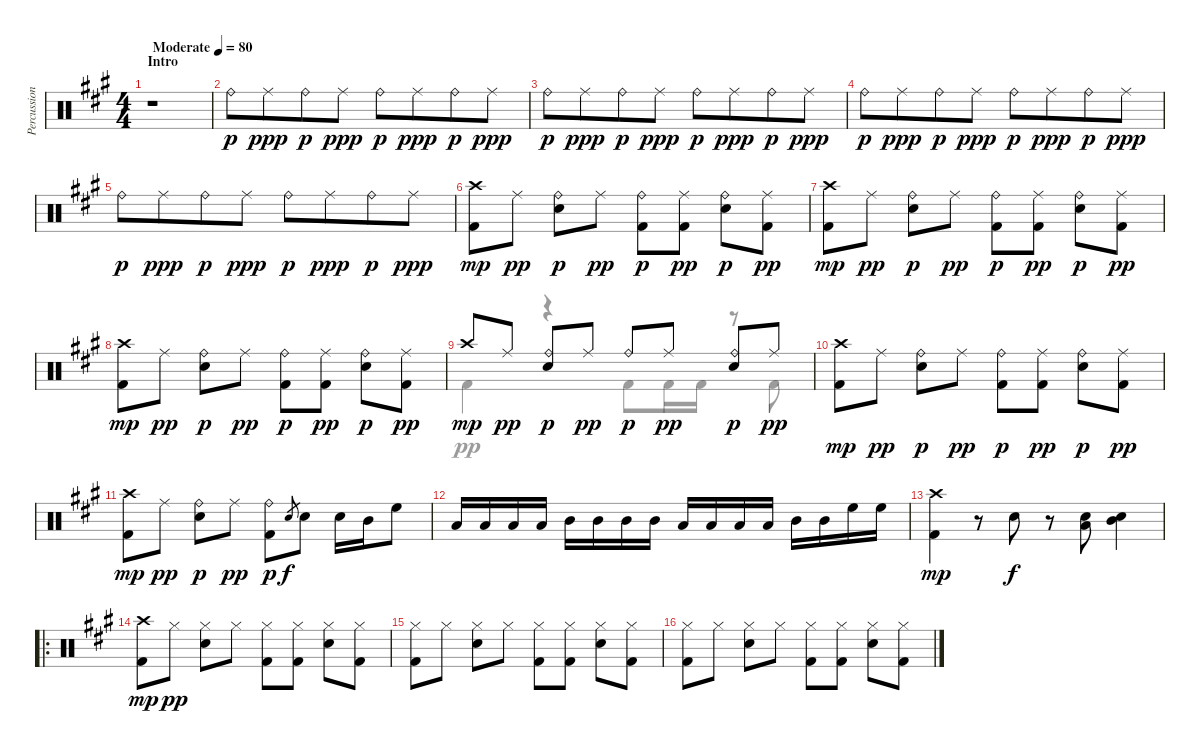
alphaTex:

\track ("Percussion" "Percussion") {instrument percussion}
\staff {score}
\articulation defaults
\voice
\ts (4 4)
\section ("" "Intro")
\tempo (80 "Moderate")
\clef neutral
\ks a
r.1{dy p} |
"Ride (bell)".8 "Ride (middle)".8{dy ppp beam merge} "Ride (bell)".8{dy p} "Ride (middle)".8{dy ppp} "Ride (bell)".8{dy p} "Ride (middle)".8{dy ppp beam merge} "Ride (bell)".8{dy p} "Ride (middle)".8{dy ppp} |
"Ride (bell)".8{dy p} "Ride (middle)".8{dy ppp beam merge} "Ride (bell)".8{dy p} "Ride (middle)".8{dy ppp} "Ride (bell)".8{dy p} "Ride (middle)".8{dy ppp beam merge} "Ride (bell)".8{dy p} "Ride (middle)".8{dy ppp} |
"Ride (bell)".8{dy p} "Ride (middle)".8{dy ppp beam merge} "Ride (bell)".8{dy p} "Ride (middle)".8{dy ppp} "Ride (bell)".8{dy p} "Ride (middle)".8{dy ppp beam merge} "Ride (bell)".8{dy p} "Ride (middle)".8{dy ppp} |
"Ride (bell)".8{dy p} "Ride (middle)".8{dy ppp beam merge} "Ride (bell)".8{dy p} "Ride (middle)".8{dy ppp} "Ride (bell)".8{dy p} "Ride (middle)".8{dy ppp beam merge} "Ride (bell)".8{dy p} "Ride (middle)".8{dy ppp} |
("Crash high (hit)" "Kick (hit) 2").8{dy mp} "Ride (middle)".8{dy pp} ("Ride (bell)" "Electric Snare (hit)").8{dy p} "Ride (middle)".8{dy pp} ("Ride (bell)" "Kick (hit) 2").8{dy p} ("Ride (middle)" "Kick (hit) 2").8{dy pp} ("Ride (bell)" "Electric Snare (hit)").8{dy p} ("Ride (middle)" "Kick (hit) 2").8{dy pp} |
("Crash high (hit)" "Kick (hit) 2").8{dy mp} "Ride (middle)".8{dy pp} ("Ride (bell)" "Electric Snare (hit)").8{dy p} "Ride (middle)".8{dy pp} ("Ride (bell)" "Kick (hit) 2").8{dy p} ("Ride (middle)" "Kick (hit) 2").8{dy pp} ("Ride (bell)" "Electric Snare (hit)").8{dy p} ("Ride (middle)" "Kick (hit) 2").8{dy pp} |
("Crash high (hit)" "Kick (hit) 2").8{dy mp} "Ride (middle)".8{dy pp} ("Ride (bell)" "Electric Snare (hit)").8{dy p} "Ride (middle)".8{dy pp} ("Ride (bell)" "Kick (hit) 2").8{dy p} ("Ride (middle)" "Kick (hit) 2").8{dy pp} ("Ride (bell)" "Electric Snare (hit)").8{dy p} ("Ride (middle)" "Kick (hit) 2").8{dy pp} |
"Crash high (hit)".8{dy mp} "Ride (middle)".8{dy pp} ("Ride (bell)" "Electric Snare (hit)").8{dy p} "Ride (middle)".8{dy pp} "Ride (bell)".8{dy p} "Ride (middle)".8{dy pp} ("Ride (bell)" "Electric Snare (hit)").8{dy p} "Ride (middle)".8{dy pp} |
("Crash high (hit)" "Kick (hit) 2").8{dy mp} "Ride (middle)".8{dy pp} ("Ride (bell)" "Electric Snare (hit)").8{dy p} "Ride (middle)".8{dy pp} ("Ride (bell)" "Kick (hit) 2").8{dy p} ("Ride (middle)" "Kick (hit) 2").8{dy pp} ("Ride (bell)" "Electric Snare (hit)").8{dy p} ("Ride (middle)" "Kick (hit) 2").8{dy pp} |
("Crash high (hit)" "Kick (hit) 2").8{dy mp} "Ride (middle)".8{dy pp} ("Ride (bell)" "Electric Snare (hit)").8{dy p} "Ride (middle)".8{dy pp} ("Ride (bell)" "Kick (hit) 2").8{dy p} "Electric Snare (hit)".8{gr dy f} "Electric Snare (hit)".8 "Electric Snare (hit)".16 "Mid Tom (hit)".16 "High Floor Tom (hit)".8 |
"Low Tom (hit)".16 "Low Tom (hit)".16 "Low Tom (hit)".16 "Low Tom (hit)".16 "Mid Tom (hit)".16 "Mid Tom (hit)".16 "Mid Tom (hit)".16 "Mid Tom (hit)".16 "Low Tom (hit)".16 "Low Tom (hit)".16 "Low Tom (hit)".16 "Low Tom (hit)".16 "Mid Tom (hit)".16 "Mid Tom (hit)".16 "High Floor Tom (hit)".16 "High Floor Tom (hit)".16 |
("Crash high (hit)" "Kick (hit) 2").4{dy mp} r.8 "Electric Snare (hit)".8{dy f} r.8 ("Low Tom (hit)" "Electric Snare (hit)").8 ("Mid Tom (hit)" "Electric Snare (hit)").4 |
\ro
("Crash high (hit)" "Kick (hit) 2").8{dy mp} "Hi-Hat (closed)".8{dy pp} ("Hi-Hat (closed)" "Electric Snare (hit)").8 "Hi-Hat (closed)".8 ("Hi-Hat (closed)" "Kick (hit) 2").8 ("Hi-Hat (closed)" "Kick (hit) 2").8 ("Hi-Hat (closed)" "Electric Snare (hit)").8 ("Hi-Hat (closed)" "Kick (hit) 2").8 |
("Hi-Hat (closed)" "Kick (hit) 2").8 "Hi-Hat (closed)".8 ("Hi-Hat (closed)" "Electric Snare (hit)").8 "Hi-Hat (closed)".8 ("Hi-Hat (closed)" "Kick (hit) 2").8 ("Hi-Hat (closed)" "Kick (hit) 2").8 ("Hi-Hat (closed)" "Electric Snare (hit)").8 ("Hi-Hat (closed)" "Kick (hit) 2").8 |
("Hi-Hat (closed)" "Kick (hit) 2").8 "Hi-Hat (closed)".8 ("Hi-Hat (closed)" "Electric Snare (hit)").8 "Hi-Hat (closed)".8 ("Hi-Hat (closed)" "Kick (hit) 2").8 ("Hi-Hat (closed)" "Kick (hit) 2").8 ("Hi-Hat (closed)" "Electric Snare (hit)").8 ("Hi-Hat (closed)" "Kick (hit) 2").8
\voice
\clef neutral
\ottava regular
\simile none
\ks a
|
|
|
|
|
|
|
|
"Kick (hit) 2".4 r.4 "Kick (hit) 2".8 "Kick (hit) 2".16 "Kick (hit) 2".16 r.8 "Kick (hit) 2".8 |
|
|
|
|
|
|
